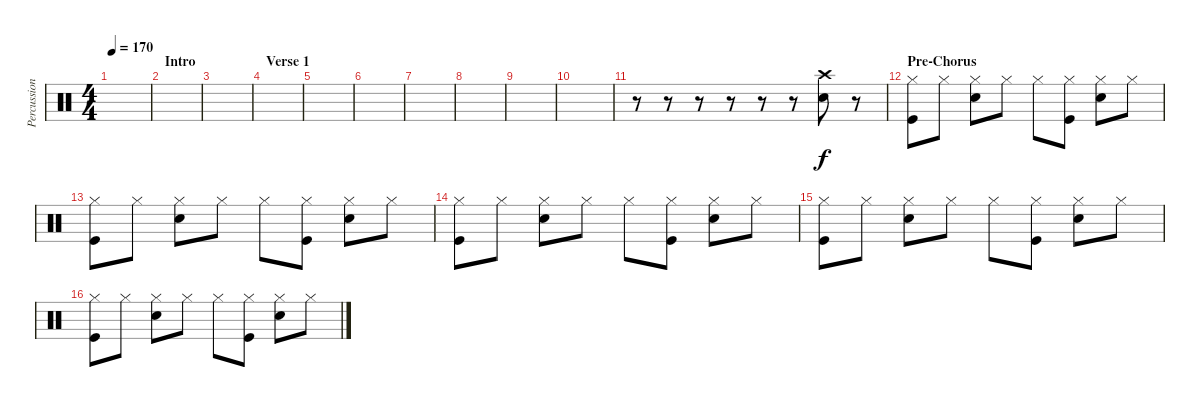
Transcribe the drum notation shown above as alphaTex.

\track ("Percussion" "Percussion") {instrument percussion}
\staff {score}
\articulation defaults
\ts (4 4)
\tempo 170
\clef neutral
\ks c
|
\section ("" "Intro")
|
|
\section ("" "Verse 1")
|
|
|
|
|
|
|
r.8 r.8 r.8 r.8 r.8 r.8 ("Crash high (hit)" "Snare (hit) 2").8 r.8 |
\section ("" "Pre-Chorus ")
("Hi-Hat (closed)" "Kick (hit)").8 "Hi-Hat (closed)".8 ("Hi-Hat (closed)" "Snare (hit) 2").8 "Hi-Hat (closed)".8 "Hi-Hat (closed)".8 ("Hi-Hat (closed)" "Kick (hit)").8 ("Hi-Hat (closed)" "Snare (hit) 2").8 "Hi-Hat (closed)".8 |
("Hi-Hat (closed)" "Kick (hit)").8 "Hi-Hat (closed)".8 ("Hi-Hat (closed)" "Snare (hit) 2").8 "Hi-Hat (closed)".8 "Hi-Hat (closed)".8 ("Hi-Hat (closed)" "Kick (hit)").8 ("Hi-Hat (closed)" "Snare (hit) 2").8 "Hi-Hat (closed)".8 |
("Hi-Hat (closed)" "Kick (hit)").8 "Hi-Hat (closed)".8 ("Hi-Hat (closed)" "Snare (hit) 2").8 "Hi-Hat (closed)".8 "Hi-Hat (closed)".8 ("Hi-Hat (closed)" "Kick (hit)").8 ("Hi-Hat (closed)" "Snare (hit) 2").8 "Hi-Hat (closed)".8 |
("Hi-Hat (closed)" "Kick (hit)").8 "Hi-Hat (closed)".8 ("Hi-Hat (closed)" "Snare (hit) 2").8 "Hi-Hat (closed)".8 "Hi-Hat (closed)".8 ("Hi-Hat (closed)" "Kick (hit)").8 ("Hi-Hat (closed)" "Snare (hit) 2").8 "Hi-Hat (closed)".8 |
("Hi-Hat (closed)" "Kick (hit)").8 "Hi-Hat (closed)".8 ("Hi-Hat (closed)" "Snare (hit) 2").8 "Hi-Hat (closed)".8 "Hi-Hat (closed)".8 ("Hi-Hat (closed)" "Kick (hit)").8 ("Hi-Hat (closed)" "Snare (hit) 2").8 "Hi-Hat (closed)".8
